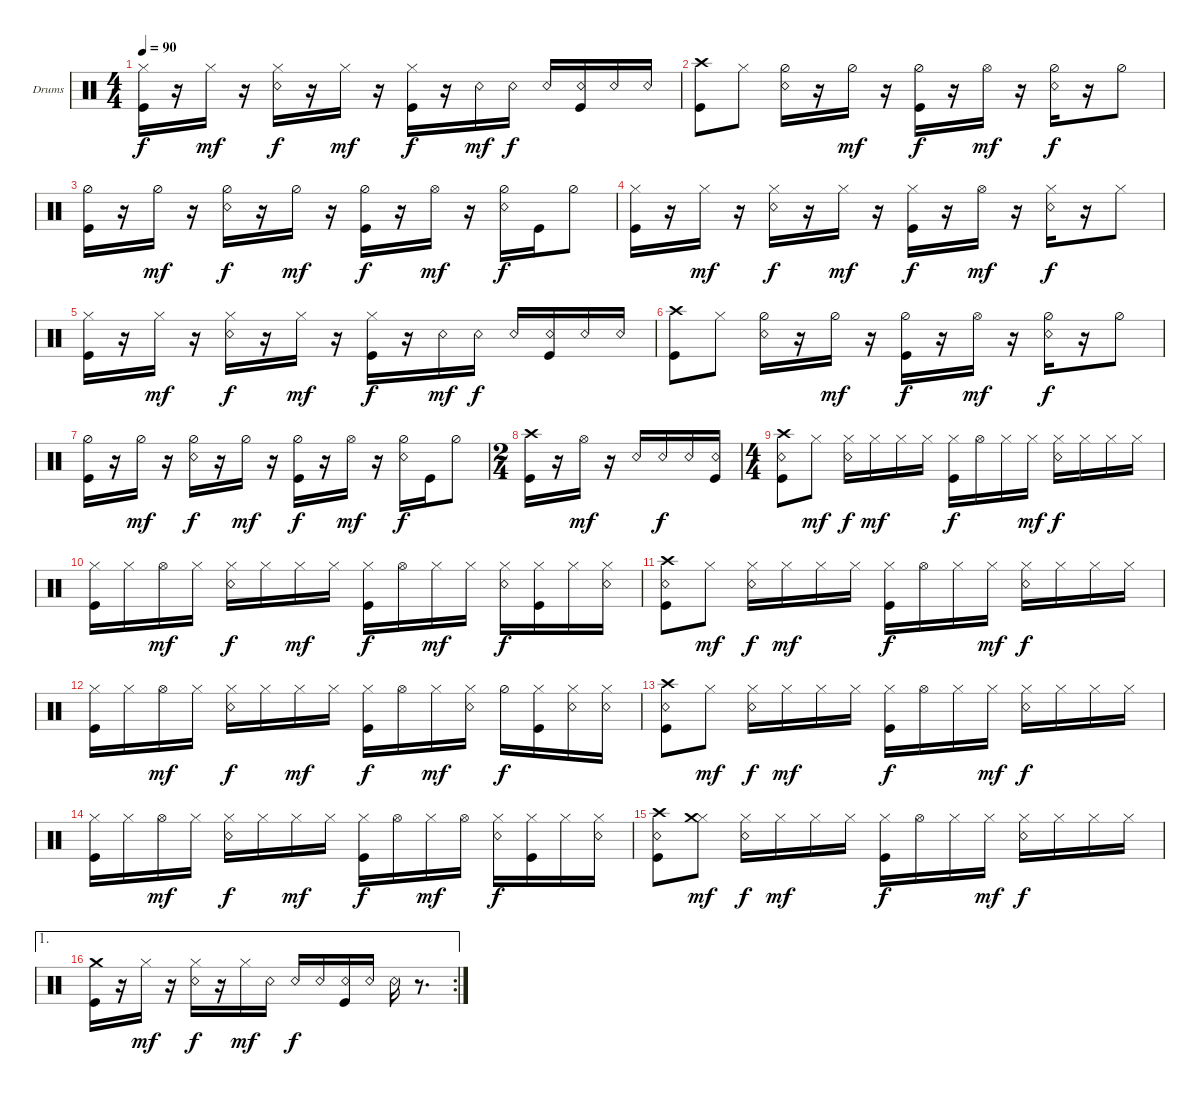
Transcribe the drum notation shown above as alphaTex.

\defaultSystemsLayout 4
\bracketExtendMode groupsimilarinstruments
\firstSystemTrackNameOrientation horizontal
\otherSystemsTrackNameOrientation horizontal
\track ("Batterie" "Drums") {instrument percussion}
\staff {score}
\articulation defaults
\ts (4 4)
\tempo 90
\clef neutral
\ks c
("Kick (hit)" "Hi-Hat (closed)").16{dy f} r.16 "Hi-Hat (closed)".16{dy mf} r.16 ("Snare (rim shot)" "Hi-Hat (closed)").16{dy f} r.16 "Hi-Hat (closed)".16{dy mf} r.16 ("Kick (hit)" "Hi-Hat (closed)").16{dy f} r.16 "Snare (rim shot)".16{dy mf} "Snare (rim shot)".16{dy f} "Snare (rim shot)".16 ("Kick (hit)" "Snare (rim shot)").16 "Snare (rim shot)".16 "Snare (rim shot)".16 |
("Kick (hit)" "Crash high (hit)").8 "Hi-Hat (closed)".8 ("Snare (rim shot)" "Hi-Hat (half)").16 r.16 "Hi-Hat (half)".16{dy mf} r.16 ("Kick (hit)" "Hi-Hat (half)").16{dy f} r.16 "Hi-Hat (open)".16{dy mf} r.16 ("Snare (rim shot)" "Hi-Hat (half)").16{dy f} r.16 "Hi-Hat (half)".8 |
("Kick (hit)" "Hi-Hat (half)").16 r.16 "Hi-Hat (half)".16{dy mf} r.16 ("Snare (rim shot)" "Hi-Hat (half)").16{dy f} r.16 "Hi-Hat (half)".16{dy mf} r.16 ("Kick (hit)" "Hi-Hat (half)").16{dy f} r.16 "Hi-Hat (open)".16{dy mf} r.16 ("Snare (rim shot)" "Hi-Hat (half)").16{dy f} "Kick (hit)".16 "Hi-Hat (half)".8 |
("Kick (hit)" "Hi-Hat (closed)").16 r.16 "Hi-Hat (closed)".16{dy mf} r.16 ("Snare (rim shot)" "Hi-Hat (closed)").16{dy f} r.16 "Hi-Hat (closed)".16{dy mf} r.16 ("Kick (hit)" "Hi-Hat (closed)").16{dy f} r.16 "Hi-Hat (open)".16{dy mf} r.16 ("Snare (rim shot)" "Hi-Hat (closed)").16{dy f} r.16 "Hi-Hat (closed)".8 |
("Kick (hit)" "Hi-Hat (closed)").16 r.16 "Hi-Hat (closed)".16{dy mf} r.16 ("Snare (rim shot)" "Hi-Hat (closed)").16{dy f} r.16 "Hi-Hat (closed)".16{dy mf} r.16 ("Kick (hit)" "Hi-Hat (closed)").16{dy f} r.16 "Snare (rim shot)".16{dy mf} "Snare (rim shot)".16{dy f} "Snare (rim shot)".16 ("Kick (hit)" "Snare (rim shot)").16 "Snare (rim shot)".16 "Snare (rim shot)".16 |
("Kick (hit)" "Crash high (hit)").8 "Hi-Hat (closed)".8 ("Snare (rim shot)" "Hi-Hat (half)").16 r.16 "Hi-Hat (half)".16{dy mf} r.16 ("Kick (hit)" "Hi-Hat (half)").16{dy f} r.16 "Hi-Hat (open)".16{dy mf} r.16 ("Snare (rim shot)" "Hi-Hat (half)").16{dy f} r.16 "Hi-Hat (half)".8 |
("Kick (hit)" "Hi-Hat (half)").16 r.16 "Hi-Hat (half)".16{dy mf} r.16 ("Snare (rim shot)" "Hi-Hat (half)").16{dy f} r.16 "Hi-Hat (half)".16{dy mf} r.16 ("Kick (hit)" "Hi-Hat (half)").16{dy f} r.16 "Hi-Hat (open)".16{dy mf} r.16 ("Snare (rim shot)" "Hi-Hat (half)").16{dy f} "Kick (hit)".16 "Hi-Hat (half)".8 |
\ts (2 4)
("Kick (hit)" "Crash high (hit)").16 r.16 "Hi-Hat (open)".16{dy mf} r.16 "Snare (rim shot)".16 "Snare (rim shot)".16{dy f} "Snare (rim shot)".16 ("Kick (hit)" "Snare (rim shot)").16 |
\ts (4 4)
("Kick (hit)" "Crash high (hit)" "Snare (rim shot)").8 "Hi-Hat (closed)".8{dy mf} ("Snare (rim shot)" "Hi-Hat (closed)").16{dy f} "Hi-Hat (closed)".16{dy mf} "Hi-Hat (closed)".16 "Hi-Hat (closed)".16 ("Kick (hit)" "Hi-Hat (closed)").16{dy f} "Hi-Hat (open)".16 "Hi-Hat (closed)".16 "Hi-Hat (closed)".16{dy mf} ("Snare (rim shot)" "Hi-Hat (closed)").16{dy f} "Hi-Hat (closed)".16 "Hi-Hat (closed)".16 "Hi-Hat (closed)".16 |
("Kick (hit)" "Hi-Hat (closed)").16 "Hi-Hat (closed)".16 "Hi-Hat (open)".16{dy mf} "Hi-Hat (closed)".16 ("Snare (rim shot)" "Hi-Hat (closed)").16{dy f} "Hi-Hat (closed)".16 "Hi-Hat (closed)".16{dy mf} "Hi-Hat (closed)".16 ("Kick (hit)" "Hi-Hat (closed)").16{dy f} "Hi-Hat (open)".16 "Hi-Hat (closed)".16{dy mf} "Hi-Hat (closed)".16 ("Snare (rim shot)" "Hi-Hat (closed)").16{dy f} ("Kick (hit)" "Hi-Hat (closed)").16 "Hi-Hat (closed)".16 ("Snare (rim shot)" "Hi-Hat (closed)").16 |
("Kick (hit)" "Crash high (hit)" "Snare (rim shot)").8 "Hi-Hat (closed)".8{dy mf} ("Snare (rim shot)" "Hi-Hat (closed)").16{dy f} "Hi-Hat (closed)".16{dy mf} "Hi-Hat (closed)".16 "Hi-Hat (closed)".16 ("Kick (hit)" "Hi-Hat (closed)").16{dy f} "Hi-Hat (open)".16 "Hi-Hat (closed)".16 "Hi-Hat (closed)".16{dy mf} ("Snare (rim shot)" "Hi-Hat (closed)").16{dy f} "Hi-Hat (closed)".16 "Hi-Hat (closed)".16 "Hi-Hat (closed)".16 |
("Kick (hit)" "Hi-Hat (closed)").16 "Hi-Hat (closed)".16 "Hi-Hat (open)".16{dy mf} "Hi-Hat (closed)".16 ("Snare (rim shot)" "Hi-Hat (closed)").16{dy f} "Hi-Hat (closed)".16 "Hi-Hat (closed)".16{dy mf} "Hi-Hat (closed)".16 ("Kick (hit)" "Hi-Hat (closed)").16{dy f} "Hi-Hat (open)".16 "Hi-Hat (closed)".16{dy mf} ("Hi-Hat (closed)" "Snare (rim shot)").16 "Hi-Hat (half)".16{dy f} ("Kick (hit)" "Hi-Hat (closed)").16 ("Hi-Hat (closed)" "Snare (rim shot)").16 ("Snare (rim shot)" "Hi-Hat (closed)").16 |
("Kick (hit)" "Crash high (hit)" "Snare (rim shot)").8 "Hi-Hat (closed)".8{dy mf} ("Snare (rim shot)" "Hi-Hat (closed)").16{dy f} "Hi-Hat (closed)".16{dy mf} "Hi-Hat (closed)".16 "Hi-Hat (closed)".16 ("Kick (hit)" "Hi-Hat (closed)").16{dy f} "Hi-Hat (open)".16 "Hi-Hat (closed)".16 "Hi-Hat (closed)".16{dy mf} ("Snare (rim shot)" "Hi-Hat (closed)").16{dy f} "Hi-Hat (closed)".16 "Hi-Hat (closed)".16 "Hi-Hat (closed)".16 |
("Kick (hit)" "Hi-Hat (closed)").16 "Hi-Hat (closed)".16 "Hi-Hat (open)".16{dy mf} "Hi-Hat (closed)".16 ("Snare (rim shot)" "Hi-Hat (closed)").16{dy f} "Hi-Hat (closed)".16 "Hi-Hat (closed)".16{dy mf} "Hi-Hat (closed)".16 ("Kick (hit)" "Hi-Hat (closed)").16{dy f} "Hi-Hat (open)".16 "Hi-Hat (closed)".16{dy mf} "Hi-Hat (open)".16 ("Snare (rim shot)" "Hi-Hat (closed)").16{dy f} ("Kick (hit)" "Hi-Hat (closed)").16 "Hi-Hat (closed)".16 ("Snare (rim shot)" "Hi-Hat (closed)").16 |
("Kick (hit)" "Crash high (hit)" "Snare (rim shot)").8 ("Hi-Hat (closed)" "Crash medium (hit)").8{dy mf} ("Snare (rim shot)" "Hi-Hat (closed)").16{dy f} "Hi-Hat (closed)".16{dy mf} "Hi-Hat (closed)".16 "Hi-Hat (closed)".16 ("Kick (hit)" "Hi-Hat (closed)").16{dy f} "Hi-Hat (open)".16 "Hi-Hat (closed)".16 "Hi-Hat (closed)".16{dy mf} ("Snare (rim shot)" "Hi-Hat (closed)").16{dy f} "Hi-Hat (closed)".16 "Hi-Hat (closed)".16 "Hi-Hat (closed)".16 |
\ae 1
\rc 2
("Kick (hit)" "Crash medium (hit)").16 r.16 "Hi-Hat (closed)".16{dy mf} r.16 ("Snare (rim shot)" "Hi-Hat (closed)").16{dy f} r.16 "Hi-Hat (closed)".16{dy mf} "Snare (rim shot)".16 "Snare (rim shot)".16{dy f} "Snare (rim shot)".16 ("Kick (hit)" "Snare (rim shot)").16 "Snare (rim shot)".16 "Snare (rim shot)".16 r.8{d}
